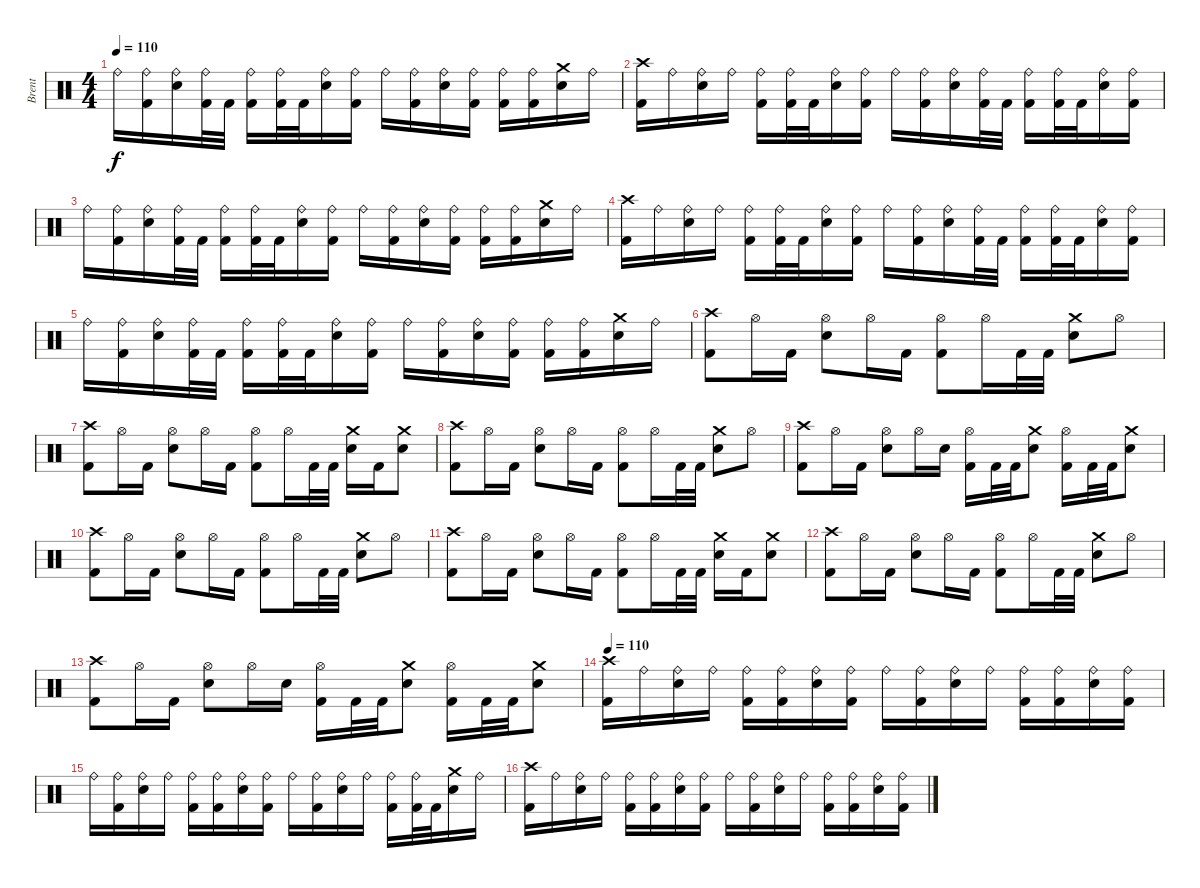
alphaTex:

\track ("Brent" "Brent") {instrument percussion}
\staff {score}
\articulation defaults
\ts (4 4)
\tempo 110
\clef neutral
\ks c "Ride (bell)".16{dy f}
("Ride (bell)" "Kick (hit) 2").16 ("Ride (bell)" "Snare (hit) 2").16 ("Ride (bell)" "Kick (hit) 2").32 "Kick (hit) 2".32 ("Ride (bell)" "Kick (hit) 2").16 ("Ride (bell)" "Kick (hit) 2").32 "Kick (hit) 2".32 ("Ride (bell)" "Snare (hit) 2").16 ("Ride (bell)" "Kick (hit) 2").16 "Ride (bell)".16 ("Ride (bell)" "Kick (hit) 2").16 ("Ride (bell)" "Snare (hit) 2").16 ("Ride (bell)" "Kick (hit) 2").16 ("Ride (bell)" "Kick (hit) 2").16 ("Ride (bell)" "Kick (hit) 2").16 ("Crash medium (hit)" "Snare (hit) 2").16 "Ride (bell)".16 |
("Crash high (hit)" "Kick (hit) 2").16 "Ride (bell)".16 ("Ride (bell)" "Snare (hit) 2").16 "Ride (bell)".16 ("Ride (bell)" "Kick (hit) 2").16 ("Ride (bell)" "Kick (hit) 2").32 "Kick (hit) 2".32 ("Ride (bell)" "Snare (hit) 2").16 ("Ride (bell)" "Kick (hit) 2").16 "Ride (bell)".16 ("Ride (bell)" "Kick (hit) 2").16 ("Ride (bell)" "Snare (hit) 2").16 ("Ride (bell)" "Kick (hit) 2").32 "Kick (hit) 2".32 ("Ride (bell)" "Kick (hit) 2").16 ("Ride (bell)" "Kick (hit) 2").32 "Kick (hit) 2".32 ("Ride (bell)" "Snare (hit) 2").16 ("Ride (bell)" "Kick (hit) 2").16 |
"Ride (bell)".16 ("Ride (bell)" "Kick (hit) 2").16 ("Ride (bell)" "Snare (hit) 2").16 ("Ride (bell)" "Kick (hit) 2").32 "Kick (hit) 2".32 ("Ride (bell)" "Kick (hit) 2").16 ("Ride (bell)" "Kick (hit) 2").32 "Kick (hit) 2".32 ("Ride (bell)" "Snare (hit) 2").16 ("Ride (bell)" "Kick (hit) 2").16 "Ride (bell)".16 ("Ride (bell)" "Kick (hit) 2").16 ("Ride (bell)" "Snare (hit) 2").16 ("Ride (bell)" "Kick (hit) 2").16 ("Ride (bell)" "Kick (hit) 2").16 ("Ride (bell)" "Kick (hit) 2").16 ("Crash medium (hit)" "Snare (hit) 2").16 "Ride (bell)".16 |
("Crash high (hit)" "Kick (hit) 2").16 "Ride (bell)".16 ("Ride (bell)" "Snare (hit) 2").16 "Ride (bell)".16 ("Ride (bell)" "Kick (hit) 2").16 ("Ride (bell)" "Kick (hit) 2").32 "Kick (hit) 2".32 ("Ride (bell)" "Snare (hit) 2").16 ("Ride (bell)" "Kick (hit) 2").16 "Ride (bell)".16 ("Ride (bell)" "Kick (hit) 2").16 ("Ride (bell)" "Snare (hit) 2").16 ("Ride (bell)" "Kick (hit) 2").32 "Kick (hit) 2".32 ("Ride (bell)" "Kick (hit) 2").16 ("Ride (bell)" "Kick (hit) 2").32 "Kick (hit) 2".32 ("Ride (bell)" "Snare (hit) 2").16 ("Ride (bell)" "Kick (hit) 2").16 |
"Ride (bell)".16 ("Ride (bell)" "Kick (hit) 2").16 ("Ride (bell)" "Snare (hit) 2").16 ("Ride (bell)" "Kick (hit) 2").32 "Kick (hit) 2".32 ("Ride (bell)" "Kick (hit) 2").16 ("Ride (bell)" "Kick (hit) 2").32 "Kick (hit) 2".32 ("Ride (bell)" "Snare (hit) 2").16 ("Ride (bell)" "Kick (hit) 2").16 "Ride (bell)".16 ("Ride (bell)" "Kick (hit) 2").16 ("Ride (bell)" "Snare (hit) 2").16 ("Ride (bell)" "Kick (hit) 2").16 ("Ride (bell)" "Kick (hit) 2").16 ("Ride (bell)" "Kick (hit) 2").16 ("Crash medium (hit)" "Snare (hit) 2").16 "Ride (bell)".16 |
("Crash high (hit)" "Kick (hit) 2").8 "Hi-Hat (open)".16 "Kick (hit) 2".16 ("Hi-Hat (open)" "Snare (hit) 2").8 "Hi-Hat (open)".16 "Kick (hit) 2".16 ("Hi-Hat (open)" "Kick (hit) 2").8 "Hi-Hat (open)".16 "Kick (hit) 2".32 "Kick (hit) 2".32 ("Crash medium (hit)" "Snare (hit) 2").8 "Hi-Hat (open)".8 |
("Crash high (hit)" "Kick (hit) 2").8 "Hi-Hat (open)".16 "Kick (hit) 2".16 ("Hi-Hat (open)" "Snare (hit) 2").8 "Hi-Hat (open)".16 "Kick (hit) 2".16 ("Hi-Hat (open)" "Kick (hit) 2").8 "Hi-Hat (open)".16 "Kick (hit) 2".32 "Kick (hit) 2".32 ("Crash medium (hit)" "Snare (hit) 2").16 "Kick (hit) 2".16 ("Crash medium (hit)" "Snare (hit) 2").8 |
("Crash high (hit)" "Kick (hit) 2").8 "Hi-Hat (open)".16 "Kick (hit) 2".16 ("Hi-Hat (open)" "Snare (hit) 2").8 "Hi-Hat (open)".16 "Kick (hit) 2".16 ("Hi-Hat (open)" "Kick (hit) 2").8 "Hi-Hat (open)".16 "Kick (hit) 2".32 "Kick (hit) 2".32 ("Crash medium (hit)" "Snare (hit) 2").8 "Hi-Hat (open)".8 |
("Crash high (hit)" "Kick (hit) 2").8 "Hi-Hat (open)".16 "Kick (hit) 2".16 ("Hi-Hat (open)" "Snare (hit) 2").8 "Hi-Hat (open)".16 "Snare (hit) 2".16 ("Hi-Hat (open)" "Kick (hit) 2").16 "Kick (hit) 2".32 "Kick (hit) 2".32 ("Crash medium (hit)" "Snare (hit) 2").8 ("Hi-Hat (open)" "Kick (hit) 2").16 "Kick (hit) 2".32 "Kick (hit) 2".32 ("Crash medium (hit)" "Snare (hit) 2").8 |
("Crash high (hit)" "Kick (hit) 2").8 "Hi-Hat (open)".16 "Kick (hit) 2".16 ("Hi-Hat (open)" "Snare (hit) 2").8 "Hi-Hat (open)".16 "Kick (hit) 2".16 ("Hi-Hat (open)" "Kick (hit) 2").8 "Hi-Hat (open)".16 "Kick (hit) 2".32 "Kick (hit) 2".32 ("Crash medium (hit)" "Snare (hit) 2").8 "Hi-Hat (open)".8 |
("Crash high (hit)" "Kick (hit) 2").8 "Hi-Hat (open)".16 "Kick (hit) 2".16 ("Hi-Hat (open)" "Snare (hit) 2").8 "Hi-Hat (open)".16 "Kick (hit) 2".16 ("Hi-Hat (open)" "Kick (hit) 2").8 "Hi-Hat (open)".16 "Kick (hit) 2".32 "Kick (hit) 2".32 ("Crash medium (hit)" "Snare (hit) 2").16 "Kick (hit) 2".16 ("Crash medium (hit)" "Snare (hit) 2").8 |
("Crash high (hit)" "Kick (hit) 2").8 "Hi-Hat (open)".16 "Kick (hit) 2".16 ("Hi-Hat (open)" "Snare (hit) 2").8 "Hi-Hat (open)".16 "Kick (hit) 2".16 ("Hi-Hat (open)" "Kick (hit) 2").8 "Hi-Hat (open)".16 "Kick (hit) 2".32 "Kick (hit) 2".32 ("Crash medium (hit)" "Snare (hit) 2").8 "Hi-Hat (open)".8 |
("Crash high (hit)" "Kick (hit) 2").8 "Hi-Hat (open)".16 "Kick (hit) 2".16 ("Hi-Hat (open)" "Snare (hit) 2").8 "Hi-Hat (open)".16 "Snare (hit) 2".16 ("Hi-Hat (open)" "Kick (hit) 2").16 "Kick (hit) 2".32 "Kick (hit) 2".32 ("Crash medium (hit)" "Snare (hit) 2").8 ("Hi-Hat (open)" "Kick (hit) 2").16 "Kick (hit) 2".32 "Kick (hit) 2".32 ("Crash medium (hit)" "Snare (hit) 2").8 |
\tempo 110
("Crash high (hit)" "Kick (hit) 2").16 "Ride (bell)".16 ("Ride (bell)" "Snare (hit) 2").16 "Ride (bell)".16 ("Ride (bell)" "Kick (hit) 2").16 ("Ride (bell)" "Kick (hit) 2").16 ("Ride (bell)" "Snare (hit) 2").16 ("Ride (bell)" "Kick (hit) 2").16 "Ride (bell)".16 ("Ride (bell)" "Kick (hit) 2").16 ("Ride (bell)" "Snare (hit) 2").16 "Ride (bell)".16 ("Ride (bell)" "Kick (hit) 2").16 ("Ride (bell)" "Kick (hit) 2").16 ("Ride (bell)" "Snare (hit) 2").16 ("Ride (bell)" "Kick (hit) 2").16 |
"Ride (bell)".16 ("Ride (bell)" "Kick (hit) 2").16 ("Ride (bell)" "Snare (hit) 2").16 "Ride (bell)".16 ("Ride (bell)" "Kick (hit) 2").16 ("Ride (bell)" "Kick (hit) 2").16 ("Ride (bell)" "Snare (hit) 2").16 ("Ride (bell)" "Kick (hit) 2").16 "Ride (bell)".16 ("Ride (bell)" "Kick (hit) 2").16 ("Ride (bell)" "Snare (hit) 2").16 "Ride (bell)".16 ("Ride (bell)" "Kick (hit) 2").16 ("Ride (bell)" "Kick (hit) 2").32 "Kick (hit) 2".32 ("Crash medium (hit)" "Snare (hit) 2").16 "Ride (bell)".16 |
("Crash high (hit)" "Kick (hit) 2").16 "Ride (bell)".16 ("Ride (bell)" "Snare (hit) 2").16 "Ride (bell)".16 ("Ride (bell)" "Kick (hit) 2").16 ("Ride (bell)" "Kick (hit) 2").16 ("Ride (bell)" "Snare (hit) 2").16 ("Ride (bell)" "Kick (hit) 2").16 "Ride (bell)".16 ("Ride (bell)" "Kick (hit) 2").16 ("Ride (bell)" "Snare (hit) 2").16 "Ride (bell)".16 ("Ride (bell)" "Kick (hit) 2").16 ("Ride (bell)" "Kick (hit) 2").16 ("Ride (bell)" "Snare (hit) 2").16 ("Ride (bell)" "Kick (hit) 2").16
